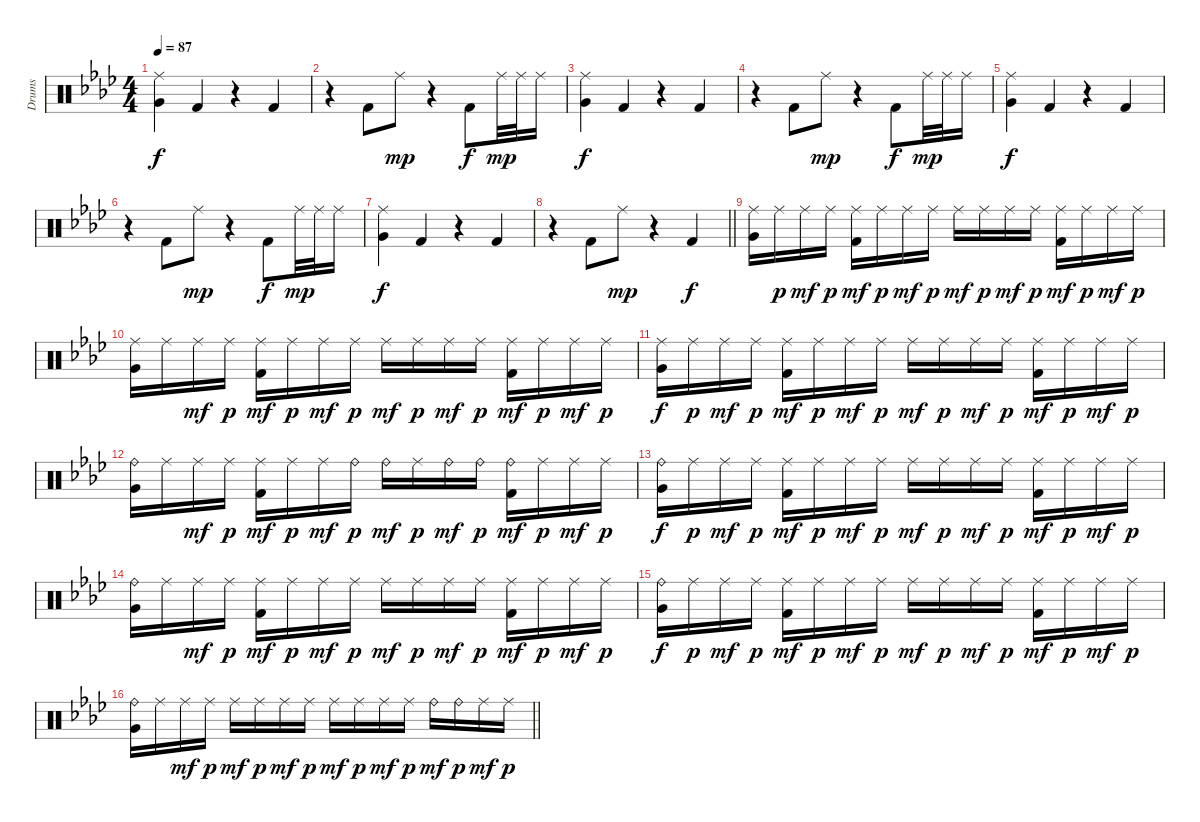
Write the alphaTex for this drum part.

\track ("Drums" "Drums") {instrument percussion}
\staff {score}
\articulation defaults
\ts (4 4)
\section ("" " ")
\tempo 87
\clef neutral
\ks fminor
("Ride (middle)" "Very Low Tom (hit)").4{dy f} "Kick (hit) 2".4 r.4 "Kick (hit) 2".4 |
r.4 "Kick (hit) 2".8 "Ride (middle)".8{dy mp} r.4 "Kick (hit) 2".8{dy f} "Ride (middle)".32{dy mp} "Ride (middle)".32 "Ride (middle)".16 |
("Ride (middle)" "Very Low Tom (hit)").4{dy f} "Kick (hit) 2".4 r.4 "Kick (hit) 2".4 |
r.4 "Kick (hit) 2".8 "Ride (middle)".8{dy mp} r.4 "Kick (hit) 2".8{dy f} "Ride (middle)".32{dy mp} "Ride (middle)".32 "Ride (middle)".16 |
("Ride (middle)" "Very Low Tom (hit)").4{dy f} "Kick (hit) 2".4 r.4 "Kick (hit) 2".4 |
r.4 "Kick (hit) 2".8 "Ride (middle)".8{dy mp} r.4 "Kick (hit) 2".8{dy f} "Ride (middle)".32{dy mp} "Ride (middle)".32 "Ride (middle)".16 |
("Ride (middle)" "Very Low Tom (hit)").4{dy f} "Kick (hit) 2".4 r.4 "Kick (hit) 2".4 |
\barLineRight lightlight
r.4 "Kick (hit) 2".8 "Ride (middle)".8{dy mp} r.4 "Kick (hit) 2".4{dy f} |
\section ("" " ")
("Ride (middle)" "Very Low Tom (hit)").16 "Ride (middle)".16{dy p} "Ride (middle)".16{dy mf} "Ride (middle)".16{dy p} ("Ride (middle)" "Kick (hit) 2").16{dy mf} "Ride (middle)".16{dy p} "Ride (middle)".16{dy mf} "Ride (middle)".16{dy p} "Ride (middle)".16{dy mf} "Ride (middle)".16{dy p} "Ride (middle)".16{dy mf} "Ride (middle)".16{dy p} ("Ride (middle)" "Kick (hit) 2").16{dy mf} "Ride (middle)".16{dy p} "Ride (middle)".16{dy mf} "Ride (middle)".16{dy p} |
("Ride (middle)" "Very Low Tom (hit)").16 "Ride (middle)".16 "Ride (middle)".16{dy mf} "Ride (middle)".16{dy p} ("Ride (middle)" "Kick (hit) 2").16{dy mf} "Ride (middle)".16{dy p} "Ride (middle)".16{dy mf} "Ride (middle)".16{dy p} "Ride (middle)".16{dy mf} "Ride (middle)".16{dy p} "Ride (middle)".16{dy mf} "Ride (middle)".16{dy p} ("Ride (middle)" "Kick (hit) 2").16{dy mf} "Ride (middle)".16{dy p} "Ride (middle)".16{dy mf} "Ride (middle)".16{dy p} |
("Ride (middle)" "Very Low Tom (hit)").16{dy f} "Ride (middle)".16{dy p} "Ride (middle)".16{dy mf} "Ride (middle)".16{dy p} ("Ride (middle)" "Kick (hit) 2").16{dy mf} "Ride (middle)".16{dy p} "Ride (middle)".16{dy mf} "Ride (middle)".16{dy p} "Ride (middle)".16{dy mf} "Ride (middle)".16{dy p} "Ride (middle)".16{dy mf} "Ride (middle)".16{dy p} ("Ride (middle)" "Kick (hit) 2").16{dy mf} "Ride (middle)".16{dy p} "Ride (middle)".16{dy mf} "Ride (middle)".16{dy p} |
("Ride (bell)" "Very Low Tom (hit)").16 "Ride (middle)".16 "Ride (middle)".16{dy mf} "Ride (middle)".16{dy p} ("Ride (middle)" "Kick (hit) 2").16{dy mf} "Ride (middle)".16{dy p} "Ride (middle)".16{dy mf} "Ride (bell)".16{dy p} "Ride (bell)".16{dy mf} "Ride (middle)".16{dy p} "Ride (bell)".16{dy mf} "Ride (bell)".16{dy p} ("Ride (bell)" "Kick (hit) 2").16{dy mf} "Ride (middle)".16{dy p} "Ride (middle)".16{dy mf} "Ride (middle)".16{dy p} |
("Ride (bell)" "Very Low Tom (hit)").16{dy f} "Ride (middle)".16{dy p} "Ride (middle)".16{dy mf} "Ride (middle)".16{dy p} ("Ride (middle)" "Kick (hit) 2").16{dy mf} "Ride (middle)".16{dy p} "Ride (middle)".16{dy mf} "Ride (middle)".16{dy p} "Ride (middle)".16{dy mf} "Ride (middle)".16{dy p} "Ride (middle)".16{dy mf} "Ride (middle)".16{dy p} ("Ride (middle)" "Kick (hit) 2").16{dy mf} "Ride (middle)".16{dy p} "Ride (middle)".16{dy mf} "Ride (middle)".16{dy p} |
("Ride (bell)" "Very Low Tom (hit)").16 "Ride (middle)".16 "Ride (middle)".16{dy mf} "Ride (middle)".16{dy p} ("Ride (middle)" "Kick (hit) 2").16{dy mf} "Ride (middle)".16{dy p} "Ride (middle)".16{dy mf} "Ride (middle)".16{dy p} "Ride (middle)".16{dy mf} "Ride (middle)".16{dy p} "Ride (middle)".16{dy mf} "Ride (middle)".16{dy p} ("Ride (middle)" "Kick (hit) 2").16{dy mf} "Ride (middle)".16{dy p} "Ride (middle)".16{dy mf} "Ride (middle)".16{dy p} |
("Ride (bell)" "Very Low Tom (hit)").16{dy f} "Ride (middle)".16{dy p} "Ride (middle)".16{dy mf} "Ride (middle)".16{dy p} ("Ride (middle)" "Kick (hit) 2").16{dy mf} "Ride (middle)".16{dy p} "Ride (middle)".16{dy mf} "Ride (middle)".16{dy p} "Ride (middle)".16{dy mf} "Ride (middle)".16{dy p} "Ride (middle)".16{dy mf} "Ride (middle)".16{dy p} ("Ride (middle)" "Kick (hit) 2").16{dy mf} "Ride (middle)".16{dy p} "Ride (middle)".16{dy mf} "Ride (middle)".16{dy p} |
\barLineRight lightlight
("Ride (bell)" "Very Low Tom (hit)").16 "Ride (middle)".16 "Ride (middle)".16{dy mf} "Ride (middle)".16{dy p} "Ride (middle)".16{dy mf} "Ride (middle)".16{dy p} "Ride (middle)".16{dy mf} "Ride (middle)".16{dy p} "Ride (middle)".16{dy mf} "Ride (middle)".16{dy p} "Ride (middle)".16{dy mf} "Ride (middle)".16{dy p} "Ride (bell)".16{dy mf} "Ride (bell)".16{dy p} "Ride (middle)".16{dy mf} "Ride (middle)".16{dy p}
